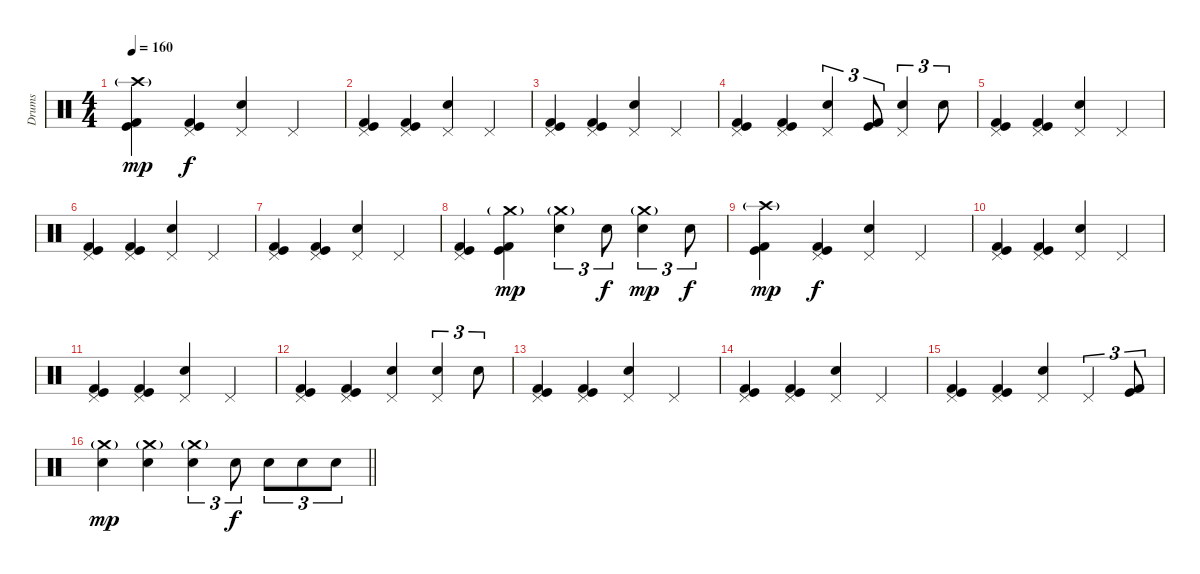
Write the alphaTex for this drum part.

\track ("Drums" "Drums") {instrument percussion}
\staff {score}
\articulation defaults
\ts (4 4)
\tempo 160
\clef neutral
\ks c
("Crash high (hit)"{g} "Kick (hit)" "Kick (hit) 2").4{dy mp} ("Pedal Hi-Hat (hit)" "Kick (hit)" "Kick (hit) 2").4{dy f} ("Pedal Hi-Hat (hit)" "Electric Snare (hit)").4 "Pedal Hi-Hat (hit)".4 |
("Pedal Hi-Hat (hit)" "Kick (hit)" "Kick (hit) 2").4 ("Pedal Hi-Hat (hit)" "Kick (hit)" "Kick (hit) 2").4 ("Pedal Hi-Hat (hit)" "Electric Snare (hit)").4 "Pedal Hi-Hat (hit)".4 |
("Pedal Hi-Hat (hit)" "Kick (hit)" "Kick (hit) 2").4 ("Pedal Hi-Hat (hit)" "Kick (hit)" "Kick (hit) 2").4 ("Pedal Hi-Hat (hit)" "Electric Snare (hit)").4 "Pedal Hi-Hat (hit)".4 |
("Pedal Hi-Hat (hit)" "Kick (hit)" "Kick (hit) 2").4 ("Pedal Hi-Hat (hit)" "Kick (hit)" "Kick (hit) 2").4 ("Pedal Hi-Hat (hit)" "Electric Snare (hit)").4{tu (3 2)} ("Kick (hit)" "Kick (hit) 2").8{tu (3 2)} ("Pedal Hi-Hat (hit)" "Electric Snare (hit)").4{tu (3 2)} "Electric Snare (hit)".8{tu (3 2)} |
("Pedal Hi-Hat (hit)" "Kick (hit)" "Kick (hit) 2").4 ("Pedal Hi-Hat (hit)" "Kick (hit)" "Kick (hit) 2").4 ("Pedal Hi-Hat (hit)" "Electric Snare (hit)").4 "Pedal Hi-Hat (hit)".4 |
("Pedal Hi-Hat (hit)" "Kick (hit)" "Kick (hit) 2").4 ("Pedal Hi-Hat (hit)" "Kick (hit)" "Kick (hit) 2").4 ("Pedal Hi-Hat (hit)" "Electric Snare (hit)").4 "Pedal Hi-Hat (hit)".4 |
("Pedal Hi-Hat (hit)" "Kick (hit)" "Kick (hit) 2").4 ("Pedal Hi-Hat (hit)" "Kick (hit)" "Kick (hit) 2").4 ("Pedal Hi-Hat (hit)" "Electric Snare (hit)").4 "Pedal Hi-Hat (hit)".4 |
("Pedal Hi-Hat (hit)" "Kick (hit)" "Kick (hit) 2").4 ("Crash medium (hit)"{g} "Kick (hit)" "Kick (hit) 2").4{dy mp} ("Crash medium (hit)"{g} "Electric Snare (hit)").4{tu (3 2)} "Electric Snare (hit)".8{tu (3 2) dy f} ("Crash medium (hit)"{g} "Electric Snare (hit)").4{tu (3 2) dy mp} "Electric Snare (hit)".8{tu (3 2) dy f} |
("Crash high (hit)"{g} "Kick (hit)" "Kick (hit) 2").4{dy mp} ("Pedal Hi-Hat (hit)" "Kick (hit)" "Kick (hit) 2").4{dy f} ("Pedal Hi-Hat (hit)" "Electric Snare (hit)").4 "Pedal Hi-Hat (hit)".4 |
("Pedal Hi-Hat (hit)" "Kick (hit)" "Kick (hit) 2").4 ("Pedal Hi-Hat (hit)" "Kick (hit)" "Kick (hit) 2").4 ("Pedal Hi-Hat (hit)" "Electric Snare (hit)").4 "Pedal Hi-Hat (hit)".4 |
("Pedal Hi-Hat (hit)" "Kick (hit)" "Kick (hit) 2").4 ("Pedal Hi-Hat (hit)" "Kick (hit)" "Kick (hit) 2").4 ("Pedal Hi-Hat (hit)" "Electric Snare (hit)").4 "Pedal Hi-Hat (hit)".4 |
("Pedal Hi-Hat (hit)" "Kick (hit)" "Kick (hit) 2").4 ("Pedal Hi-Hat (hit)" "Kick (hit)" "Kick (hit) 2").4 ("Pedal Hi-Hat (hit)" "Electric Snare (hit)").4 ("Pedal Hi-Hat (hit)" "Electric Snare (hit)").4{tu (3 2)} "Electric Snare (hit)".8{tu (3 2)} |
("Pedal Hi-Hat (hit)" "Kick (hit)" "Kick (hit) 2").4 ("Pedal Hi-Hat (hit)" "Kick (hit)" "Kick (hit) 2").4 ("Pedal Hi-Hat (hit)" "Electric Snare (hit)").4 "Pedal Hi-Hat (hit)".4 |
("Pedal Hi-Hat (hit)" "Kick (hit)" "Kick (hit) 2").4 ("Pedal Hi-Hat (hit)" "Kick (hit)" "Kick (hit) 2").4 ("Pedal Hi-Hat (hit)" "Electric Snare (hit)").4 "Pedal Hi-Hat (hit)".4 |
("Pedal Hi-Hat (hit)" "Kick (hit)" "Kick (hit) 2").4 ("Pedal Hi-Hat (hit)" "Kick (hit)" "Kick (hit) 2").4 ("Pedal Hi-Hat (hit)" "Electric Snare (hit)").4 "Pedal Hi-Hat (hit)".4{tu (3 2)} ("Kick (hit)" "Kick (hit) 2").8{tu (3 2)} |
\barLineRight lightlight
("Crash medium (hit)"{g} "Electric Snare (hit)").4{dy mp} ("Crash medium (hit)"{g} "Electric Snare (hit)").4 ("Crash medium (hit)"{g} "Electric Snare (hit)").4{tu (3 2)} "Electric Snare (hit)".8{tu (3 2) dy f} "Electric Snare (hit)".8{tu (3 2)} "Electric Snare (hit)".8{tu (3 2)} "Electric Snare (hit)".8{tu (3 2)}
